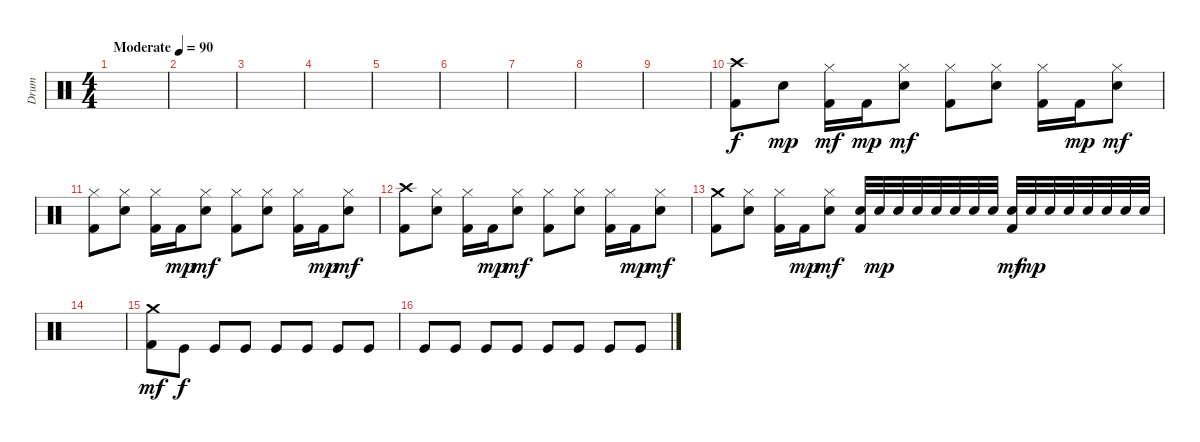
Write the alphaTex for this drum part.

\track ("Drum" "Drum") {instrument percussion}
\staff {score}
\articulation defaults
\ts (4 4)
\tempo (90 "Moderate")
\clef neutral
\ks c
|
|
|
|
|
|
|
|
|
("Crash high (hit)" "Kick (hit) 2").8 "Snare (hit) 2".8{dy mp} ("Hi-Hat (closed)" "Kick (hit) 2").16{dy mf} "Kick (hit) 2".16{dy mp} ("Snare (hit) 2" "Hi-Hat (closed)").8{dy mf} ("Hi-Hat (closed)" "Kick (hit) 2").8 ("Snare (hit) 2" "Hi-Hat (closed)").8 ("Hi-Hat (closed)" "Kick (hit) 2").16 "Kick (hit) 2".16{dy mp} ("Snare (hit) 2" "Hi-Hat (closed)").8{dy mf} |
("Hi-Hat (closed)" "Kick (hit) 2").8 ("Snare (hit) 2" "Hi-Hat (closed)").8 ("Hi-Hat (closed)" "Kick (hit) 2").16 "Kick (hit) 2".16{dy mp} ("Snare (hit) 2" "Hi-Hat (closed)").8{dy mf} ("Hi-Hat (closed)" "Kick (hit) 2").8 ("Snare (hit) 2" "Hi-Hat (closed)").8 ("Hi-Hat (closed)" "Kick (hit) 2").16 "Kick (hit) 2".16{dy mp} ("Snare (hit) 2" "Hi-Hat (closed)").8{dy mf} |
("Crash high (hit)" "Kick (hit) 2").8 ("Snare (hit) 2" "Hi-Hat (closed)").8 ("Hi-Hat (closed)" "Kick (hit) 2").16 "Kick (hit) 2".16{dy mp} ("Snare (hit) 2" "Hi-Hat (closed)").8{dy mf} ("Hi-Hat (closed)" "Kick (hit) 2").8 ("Snare (hit) 2" "Hi-Hat (closed)").8 ("Hi-Hat (closed)" "Kick (hit) 2").16 "Kick (hit) 2".16{dy mp} ("Snare (hit) 2" "Hi-Hat (closed)").8{dy mf} |
("Crash medium (hit)" "Kick (hit) 2").8 ("Snare (hit) 2" "Hi-Hat (closed)").8 ("Hi-Hat (closed)" "Kick (hit) 2").16 "Kick (hit) 2".16{dy mp} ("Snare (hit) 2" "Hi-Hat (closed)").8{dy mf} ("Snare (hit) 2" "Kick (hit) 2").32 "Snare (hit) 2".32{dy mp} "Snare (hit) 2".32 "Snare (hit) 2".32 "Snare (hit) 2".32 "Snare (hit) 2".32 "Snare (hit) 2".32 "Snare (hit) 2".32 ("Snare (hit) 2" "Kick (hit) 2").32{dy mf} "Snare (hit) 2".32{dy mp} "Snare (hit) 2".32 "Snare (hit) 2".32 "Snare (hit) 2".32 "Snare (hit) 2".32 "Snare (hit) 2".32 "Snare (hit) 2".32 |
|
("Crash medium (hit)" "Kick (hit) 2").8{dy mf} "Kick (hit)".8{dy f} "Kick (hit)".8 "Kick (hit)".8 "Kick (hit)".8 "Kick (hit)".8 "Kick (hit)".8 "Kick (hit)".8 |
"Kick (hit)".8 "Kick (hit)".8 "Kick (hit)".8 "Kick (hit)".8 "Kick (hit)".8 "Kick (hit)".8 "Kick (hit)".8 "Kick (hit)".8
